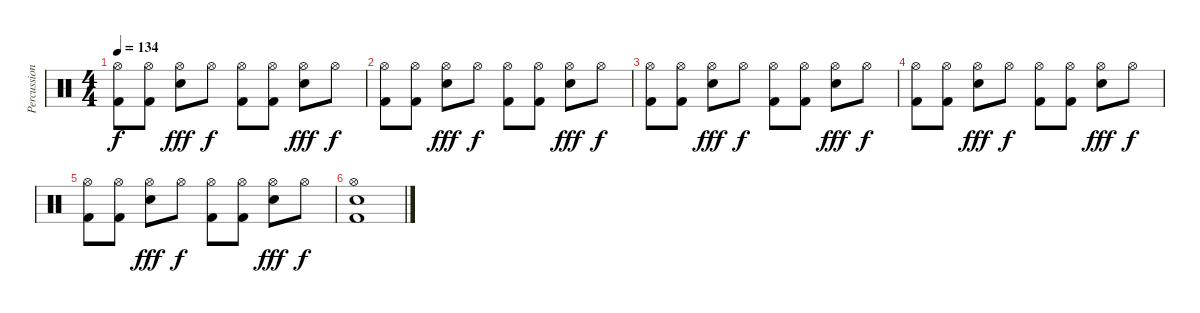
\track ("Percussion" "Percussion") {instrument percussion}
\staff {score}
\articulation defaults
\ts (4 4)
\tempo 134
\clef neutral
\ks c
("Hi-Hat (open)" "Kick (hit) 2").8{dy f} ("Hi-Hat (open)" "Kick (hit) 2").8 ("Hi-Hat (open)" "Snare (hit) 2").8{dy fff} "Hi-Hat (open)".8{dy f} ("Hi-Hat (open)" "Kick (hit) 2").8 ("Hi-Hat (open)" "Kick (hit) 2").8 ("Hi-Hat (open)" "Snare (hit) 2").8{dy fff} "Hi-Hat (open)".8{dy f} |
("Hi-Hat (open)" "Kick (hit) 2").8 ("Hi-Hat (open)" "Kick (hit) 2").8 ("Hi-Hat (open)" "Snare (hit) 2").8{dy fff} "Hi-Hat (open)".8{dy f} ("Hi-Hat (open)" "Kick (hit) 2").8 ("Hi-Hat (open)" "Kick (hit) 2").8 ("Hi-Hat (open)" "Snare (hit) 2").8{dy fff} "Hi-Hat (open)".8{dy f} |
("Hi-Hat (open)" "Kick (hit) 2").8 ("Hi-Hat (open)" "Kick (hit) 2").8 ("Hi-Hat (open)" "Snare (hit) 2").8{dy fff} "Hi-Hat (open)".8{dy f} ("Hi-Hat (open)" "Kick (hit) 2").8 ("Hi-Hat (open)" "Kick (hit) 2").8 ("Hi-Hat (open)" "Snare (hit) 2").8{dy fff} "Hi-Hat (open)".8{dy f} |
("Hi-Hat (open)" "Kick (hit) 2").8 ("Hi-Hat (open)" "Kick (hit) 2").8 ("Hi-Hat (open)" "Snare (hit) 2").8{dy fff} "Hi-Hat (open)".8{dy f} ("Hi-Hat (open)" "Kick (hit) 2").8 ("Hi-Hat (open)" "Kick (hit) 2").8 ("Hi-Hat (open)" "Snare (hit) 2").8{dy fff} "Hi-Hat (open)".8{dy f} |
("Hi-Hat (open)" "Kick (hit) 2").8 ("Hi-Hat (open)" "Kick (hit) 2").8 ("Hi-Hat (open)" "Snare (hit) 2").8{dy fff} "Hi-Hat (open)".8{dy f} ("Hi-Hat (open)" "Kick (hit) 2").8 ("Hi-Hat (open)" "Kick (hit) 2").8 ("Hi-Hat (open)" "Snare (hit) 2").8{dy fff} "Hi-Hat (open)".8{dy f} |
("Hi-Hat (open)" "Snare (hit) 2" "Kick (hit) 2").1
